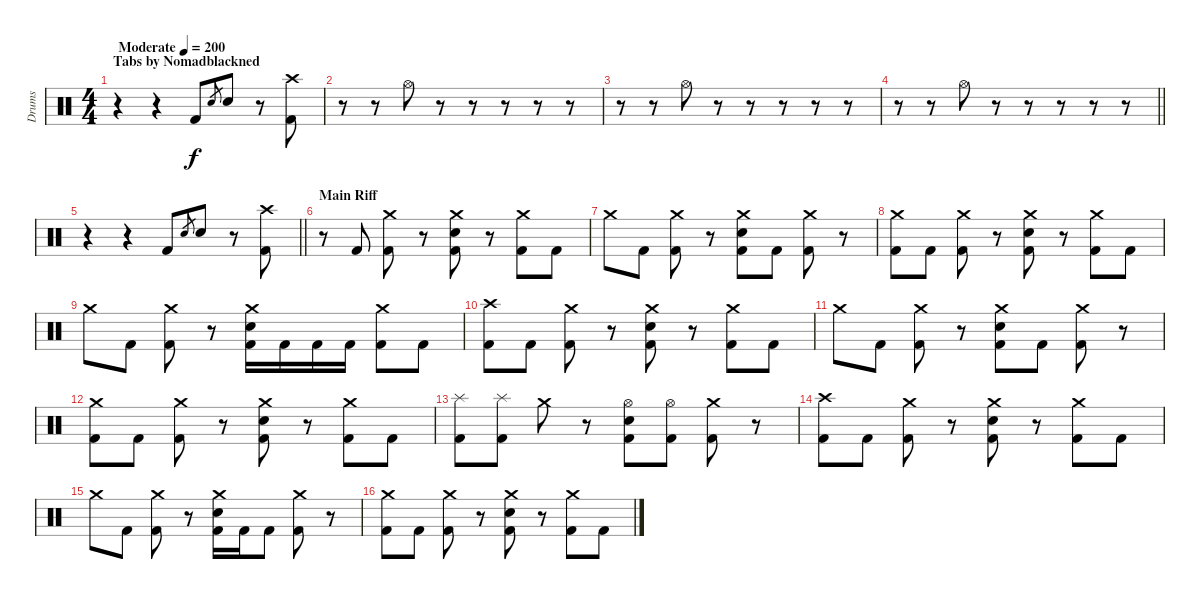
\track ("Drums" "Drums") {instrument percussion}
\staff {score}
\articulation defaults
\ts (4 4)
\section ("" "Tabs by Nomadblackned")
\tempo (200 "Moderate")
\clef neutral
\ks c
r.4{dy f} r.4 "Kick (hit) 2".8 "Electric Snare (hit)".8{gr} "Electric Snare (hit)".8 r.8 ("Crash high (hit)" "Kick (hit) 2").8 |
r.8 r.8 "Hi-Hat (open)".8 r.8 r.8 r.8 r.8 r.8 |
r.8 r.8 "Hi-Hat (open)".8 r.8 r.8 r.8 r.8 r.8 |
\barLineRight lightlight
r.8 r.8 "Hi-Hat (open)".8 r.8 r.8 r.8 r.8 r.8 |
\section ("" "")
\barLineRight lightlight
r.4 r.4 "Kick (hit) 2".8 "Electric Snare (hit)".8{gr} "Electric Snare (hit)".8 r.8 ("Crash high (hit)" "Kick (hit) 2").8 |
\section ("" "Main Riff")
r.8 "Kick (hit) 2".8 ("Crash medium (hit)" "Kick (hit) 2").8 r.8 ("Crash medium (hit)" "Electric Snare (hit)" "Kick (hit) 2").8 r.8 ("Crash medium (hit)" "Kick (hit) 2").8 "Kick (hit) 2".8 |
"Crash medium (hit)".8 "Kick (hit) 2".8 ("Crash medium (hit)" "Kick (hit) 2").8 r.8 ("Crash medium (hit)" "Electric Snare (hit)" "Kick (hit) 2").8 "Kick (hit) 2".8 ("Crash medium (hit)" "Kick (hit) 2").8 r.8 |
("Crash medium (hit)" "Kick (hit) 2").8 "Kick (hit) 2".8 ("Crash medium (hit)" "Kick (hit) 2").8 r.8 ("Crash medium (hit)" "Electric Snare (hit)" "Kick (hit) 2").8 r.8 ("Crash medium (hit)" "Kick (hit) 2").8 "Kick (hit) 2".8 |
"Crash medium (hit)".8 "Kick (hit) 2".8 ("Crash medium (hit)" "Kick (hit) 2").8 r.8 ("Crash medium (hit)" "Electric Snare (hit)" "Kick (hit) 2").16 "Kick (hit) 2".16 "Kick (hit) 2".16 "Kick (hit) 2".16 ("Crash medium (hit)" "Kick (hit) 2").8 "Kick (hit) 2".8 |
("Crash high (hit)" "Kick (hit) 2").8 "Kick (hit) 2".8 ("Crash medium (hit)" "Kick (hit) 2").8 r.8 ("Crash medium (hit)" "Electric Snare (hit)" "Kick (hit) 2").8 r.8 ("Crash medium (hit)" "Kick (hit) 2").8 "Kick (hit) 2".8 |
"Crash medium (hit)".8 "Kick (hit) 2".8 ("Crash medium (hit)" "Kick (hit) 2").8 r.8 ("Crash medium (hit)" "Electric Snare (hit)" "Kick (hit) 2").8 "Kick (hit) 2".8 ("Crash medium (hit)" "Kick (hit) 2").8 r.8 |
("Crash medium (hit)" "Kick (hit) 2").8 "Kick (hit) 2".8 ("Crash medium (hit)" "Kick (hit) 2").8 r.8 ("Crash medium (hit)" "Electric Snare (hit)" "Kick (hit) 2").8 r.8 ("Crash medium (hit)" "Kick (hit) 2").8 "Kick (hit) 2".8 |
("Splash (hit)" "Kick (hit) 2").8 ("Splash (hit)" "Kick (hit) 2").8 "Crash medium (hit)".8 r.8 ("Hi-Hat (open)" "Electric Snare (hit)" "Kick (hit) 2").8 ("Hi-Hat (open)" "Kick (hit) 2").8 ("Crash medium (hit)" "Kick (hit) 2").8 r.8 |
("Crash high (hit)" "Kick (hit) 2").8 "Kick (hit) 2".8 ("Crash medium (hit)" "Kick (hit) 2").8 r.8 ("Crash medium (hit)" "Electric Snare (hit)" "Kick (hit) 2").8 r.8 ("Crash medium (hit)" "Kick (hit) 2").8 "Kick (hit) 2".8 |
"Crash medium (hit)".8 "Kick (hit) 2".8 ("Crash medium (hit)" "Kick (hit) 2").8 r.8 ("Crash medium (hit)" "Electric Snare (hit)" "Kick (hit) 2").16 "Kick (hit) 2".16 "Kick (hit) 2".8 ("Crash medium (hit)" "Kick (hit) 2").8 r.8 |
("Crash medium (hit)" "Kick (hit) 2").8 "Kick (hit) 2".8 ("Crash medium (hit)" "Kick (hit) 2").8 r.8 ("Crash medium (hit)" "Electric Snare (hit)" "Kick (hit) 2").8 r.8 ("Crash medium (hit)" "Kick (hit) 2").8 "Kick (hit) 2".8
